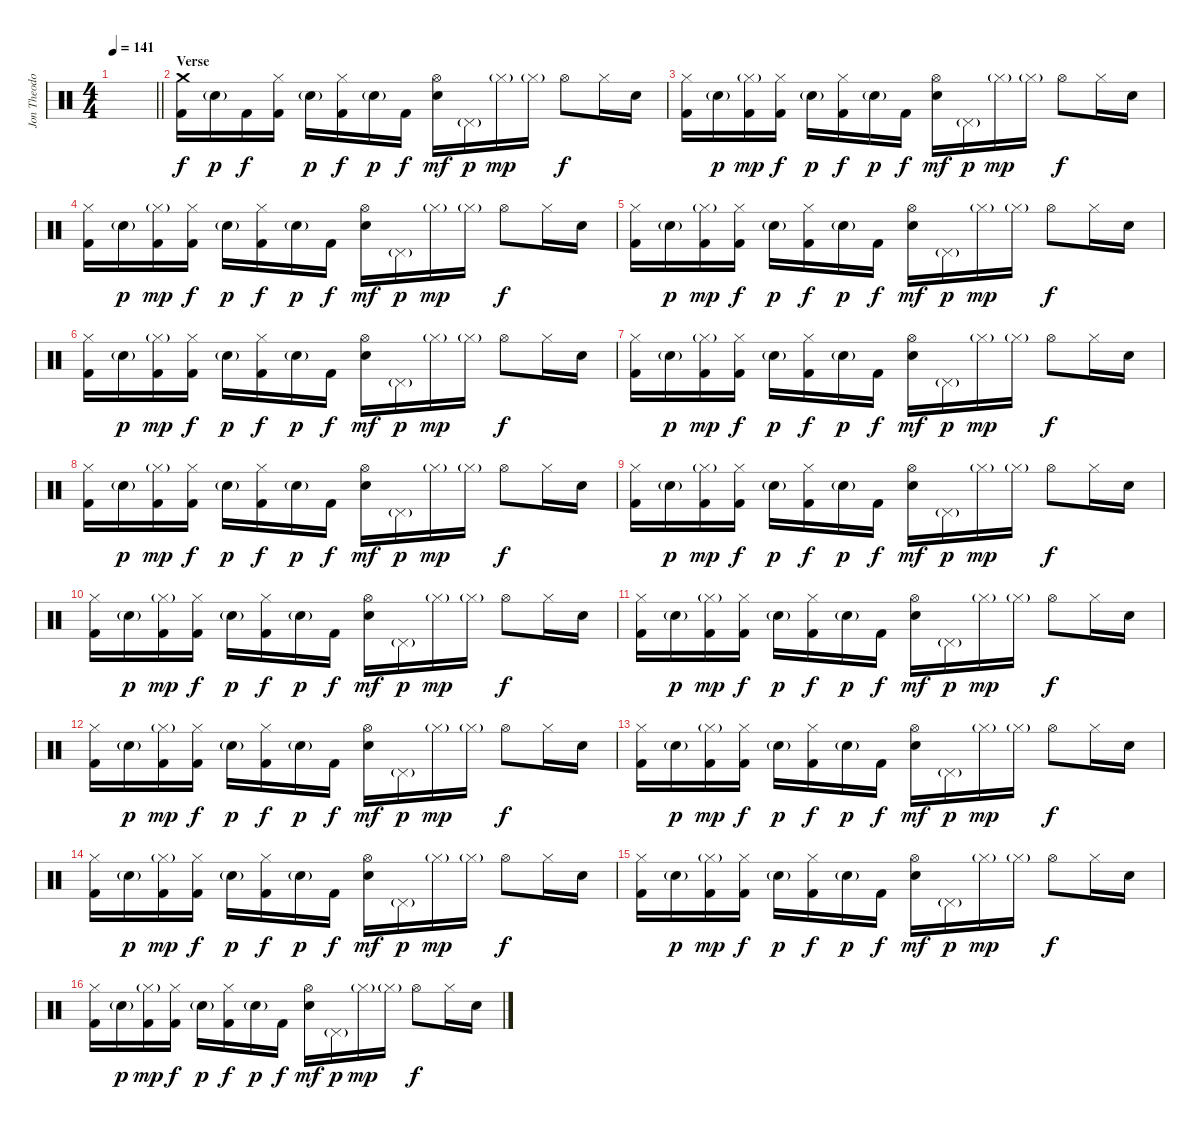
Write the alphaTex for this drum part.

\track ("Jon Theodore - Drums" "Jon Theodo") {instrument percussion}
\staff {score}
\articulation defaults
\ts (4 4)
\tempo 141
\clef neutral
\barLineRight lightlight
\ks c
|
\section ("" "Verse")
("Crash medium (hit)" "Kick (hit) 2").16 "Electric Snare (hit)"{g}.16{dy p} "Kick (hit) 2".16{dy f} ("Hi-Hat (closed)" "Kick (hit) 2").16 "Electric Snare (hit)"{g}.16{dy p} ("Hi-Hat (closed)" "Kick (hit) 2").16{dy f} "Electric Snare (hit)"{g}.16{dy p} "Kick (hit) 2".16{dy f} ("Hi-Hat (open)" "Electric Snare (hit)").16{dy mf} "Pedal Hi-Hat (hit)"{g}.16{dy p} "Hi-Hat (closed)"{g}.16{dy mp} "Hi-Hat (closed)"{g}.16 "Hi-Hat (open)".8{dy f} "Hi-Hat (closed)".16 "Electric Snare (hit)".16 |
("Hi-Hat (closed)" "Kick (hit) 2").16 "Electric Snare (hit)"{g}.16{dy p} ("Hi-Hat (closed)"{g} "Kick (hit) 2").16{dy mp} ("Hi-Hat (closed)" "Kick (hit) 2").16{dy f} "Electric Snare (hit)"{g}.16{dy p} ("Hi-Hat (closed)" "Kick (hit) 2").16{dy f} "Electric Snare (hit)"{g}.16{dy p} "Kick (hit) 2".16{dy f} ("Hi-Hat (open)" "Electric Snare (hit)").16{dy mf} "Pedal Hi-Hat (hit)"{g}.16{dy p} "Hi-Hat (closed)"{g}.16{dy mp} "Hi-Hat (closed)"{g}.16 "Hi-Hat (open)".8{dy f} "Hi-Hat (closed)".16 "Electric Snare (hit)".16 |
("Hi-Hat (closed)" "Kick (hit) 2").16 "Electric Snare (hit)"{g}.16{dy p} ("Hi-Hat (closed)"{g} "Kick (hit) 2").16{dy mp} ("Hi-Hat (closed)" "Kick (hit) 2").16{dy f} "Electric Snare (hit)"{g}.16{dy p} ("Hi-Hat (closed)" "Kick (hit) 2").16{dy f} "Electric Snare (hit)"{g}.16{dy p} "Kick (hit) 2".16{dy f} ("Hi-Hat (open)" "Electric Snare (hit)").16{dy mf} "Pedal Hi-Hat (hit)"{g}.16{dy p} "Hi-Hat (closed)"{g}.16{dy mp} "Hi-Hat (closed)"{g}.16 "Hi-Hat (open)".8{dy f} "Hi-Hat (closed)".16 "Electric Snare (hit)".16 |
("Hi-Hat (closed)" "Kick (hit) 2").16 "Electric Snare (hit)"{g}.16{dy p} ("Hi-Hat (closed)"{g} "Kick (hit) 2").16{dy mp} ("Hi-Hat (closed)" "Kick (hit) 2").16{dy f} "Electric Snare (hit)"{g}.16{dy p} ("Hi-Hat (closed)" "Kick (hit) 2").16{dy f} "Electric Snare (hit)"{g}.16{dy p} "Kick (hit) 2".16{dy f} ("Hi-Hat (open)" "Electric Snare (hit)").16{dy mf} "Pedal Hi-Hat (hit)"{g}.16{dy p} "Hi-Hat (closed)"{g}.16{dy mp} "Hi-Hat (closed)"{g}.16 "Hi-Hat (open)".8{dy f} "Hi-Hat (closed)".16 "Electric Snare (hit)".16 |
("Hi-Hat (closed)" "Kick (hit) 2").16 "Electric Snare (hit)"{g}.16{dy p} ("Hi-Hat (closed)"{g} "Kick (hit) 2").16{dy mp} ("Hi-Hat (closed)" "Kick (hit) 2").16{dy f} "Electric Snare (hit)"{g}.16{dy p} ("Hi-Hat (closed)" "Kick (hit) 2").16{dy f} "Electric Snare (hit)"{g}.16{dy p} "Kick (hit) 2".16{dy f} ("Hi-Hat (open)" "Electric Snare (hit)").16{dy mf} "Pedal Hi-Hat (hit)"{g}.16{dy p} "Hi-Hat (closed)"{g}.16{dy mp} "Hi-Hat (closed)"{g}.16 "Hi-Hat (open)".8{dy f} "Hi-Hat (closed)".16 "Electric Snare (hit)".16 |
("Hi-Hat (closed)" "Kick (hit) 2").16 "Electric Snare (hit)"{g}.16{dy p} ("Hi-Hat (closed)"{g} "Kick (hit) 2").16{dy mp} ("Hi-Hat (closed)" "Kick (hit) 2").16{dy f} "Electric Snare (hit)"{g}.16{dy p} ("Hi-Hat (closed)" "Kick (hit) 2").16{dy f} "Electric Snare (hit)"{g}.16{dy p} "Kick (hit) 2".16{dy f} ("Hi-Hat (open)" "Electric Snare (hit)").16{dy mf} "Pedal Hi-Hat (hit)"{g}.16{dy p} "Hi-Hat (closed)"{g}.16{dy mp} "Hi-Hat (closed)"{g}.16 "Hi-Hat (open)".8{dy f} "Hi-Hat (closed)".16 "Electric Snare (hit)".16 |
("Hi-Hat (closed)" "Kick (hit) 2").16 "Electric Snare (hit)"{g}.16{dy p} ("Hi-Hat (closed)"{g} "Kick (hit) 2").16{dy mp} ("Hi-Hat (closed)" "Kick (hit) 2").16{dy f} "Electric Snare (hit)"{g}.16{dy p} ("Hi-Hat (closed)" "Kick (hit) 2").16{dy f} "Electric Snare (hit)"{g}.16{dy p} "Kick (hit) 2".16{dy f} ("Hi-Hat (open)" "Electric Snare (hit)").16{dy mf} "Pedal Hi-Hat (hit)"{g}.16{dy p} "Hi-Hat (closed)"{g}.16{dy mp} "Hi-Hat (closed)"{g}.16 "Hi-Hat (open)".8{dy f} "Hi-Hat (closed)".16 "Electric Snare (hit)".16 |
("Hi-Hat (closed)" "Kick (hit) 2").16 "Electric Snare (hit)"{g}.16{dy p} ("Hi-Hat (closed)"{g} "Kick (hit) 2").16{dy mp} ("Hi-Hat (closed)" "Kick (hit) 2").16{dy f} "Electric Snare (hit)"{g}.16{dy p} ("Hi-Hat (closed)" "Kick (hit) 2").16{dy f} "Electric Snare (hit)"{g}.16{dy p} "Kick (hit) 2".16{dy f} ("Hi-Hat (open)" "Electric Snare (hit)").16{dy mf} "Pedal Hi-Hat (hit)"{g}.16{dy p} "Hi-Hat (closed)"{g}.16{dy mp} "Hi-Hat (closed)"{g}.16 "Hi-Hat (open)".8{dy f} "Hi-Hat (closed)".16 "Electric Snare (hit)".16 |
("Hi-Hat (closed)" "Kick (hit) 2").16 "Electric Snare (hit)"{g}.16{dy p} ("Hi-Hat (closed)"{g} "Kick (hit) 2").16{dy mp} ("Hi-Hat (closed)" "Kick (hit) 2").16{dy f} "Electric Snare (hit)"{g}.16{dy p} ("Hi-Hat (closed)" "Kick (hit) 2").16{dy f} "Electric Snare (hit)"{g}.16{dy p} "Kick (hit) 2".16{dy f} ("Hi-Hat (open)" "Electric Snare (hit)").16{dy mf} "Pedal Hi-Hat (hit)"{g}.16{dy p} "Hi-Hat (closed)"{g}.16{dy mp} "Hi-Hat (closed)"{g}.16 "Hi-Hat (open)".8{dy f} "Hi-Hat (closed)".16 "Electric Snare (hit)".16 |
("Hi-Hat (closed)" "Kick (hit) 2").16 "Electric Snare (hit)"{g}.16{dy p} ("Hi-Hat (closed)"{g} "Kick (hit) 2").16{dy mp} ("Hi-Hat (closed)" "Kick (hit) 2").16{dy f} "Electric Snare (hit)"{g}.16{dy p} ("Hi-Hat (closed)" "Kick (hit) 2").16{dy f} "Electric Snare (hit)"{g}.16{dy p} "Kick (hit) 2".16{dy f} ("Hi-Hat (open)" "Electric Snare (hit)").16{dy mf} "Pedal Hi-Hat (hit)"{g}.16{dy p} "Hi-Hat (closed)"{g}.16{dy mp} "Hi-Hat (closed)"{g}.16 "Hi-Hat (open)".8{dy f} "Hi-Hat (closed)".16 "Electric Snare (hit)".16 |
("Hi-Hat (closed)" "Kick (hit) 2").16 "Electric Snare (hit)"{g}.16{dy p} ("Hi-Hat (closed)"{g} "Kick (hit) 2").16{dy mp} ("Hi-Hat (closed)" "Kick (hit) 2").16{dy f} "Electric Snare (hit)"{g}.16{dy p} ("Hi-Hat (closed)" "Kick (hit) 2").16{dy f} "Electric Snare (hit)"{g}.16{dy p} "Kick (hit) 2".16{dy f} ("Hi-Hat (open)" "Electric Snare (hit)").16{dy mf} "Pedal Hi-Hat (hit)"{g}.16{dy p} "Hi-Hat (closed)"{g}.16{dy mp} "Hi-Hat (closed)"{g}.16 "Hi-Hat (open)".8{dy f} "Hi-Hat (closed)".16 "Electric Snare (hit)".16 |
("Hi-Hat (closed)" "Kick (hit) 2").16 "Electric Snare (hit)"{g}.16{dy p} ("Hi-Hat (closed)"{g} "Kick (hit) 2").16{dy mp} ("Hi-Hat (closed)" "Kick (hit) 2").16{dy f} "Electric Snare (hit)"{g}.16{dy p} ("Hi-Hat (closed)" "Kick (hit) 2").16{dy f} "Electric Snare (hit)"{g}.16{dy p} "Kick (hit) 2".16{dy f} ("Hi-Hat (open)" "Electric Snare (hit)").16{dy mf} "Pedal Hi-Hat (hit)"{g}.16{dy p} "Hi-Hat (closed)"{g}.16{dy mp} "Hi-Hat (closed)"{g}.16 "Hi-Hat (open)".8{dy f} "Hi-Hat (closed)".16 "Electric Snare (hit)".16 |
("Hi-Hat (closed)" "Kick (hit) 2").16 "Electric Snare (hit)"{g}.16{dy p} ("Hi-Hat (closed)"{g} "Kick (hit) 2").16{dy mp} ("Hi-Hat (closed)" "Kick (hit) 2").16{dy f} "Electric Snare (hit)"{g}.16{dy p} ("Hi-Hat (closed)" "Kick (hit) 2").16{dy f} "Electric Snare (hit)"{g}.16{dy p} "Kick (hit) 2".16{dy f} ("Hi-Hat (open)" "Electric Snare (hit)").16{dy mf} "Pedal Hi-Hat (hit)"{g}.16{dy p} "Hi-Hat (closed)"{g}.16{dy mp} "Hi-Hat (closed)"{g}.16 "Hi-Hat (open)".8{dy f} "Hi-Hat (closed)".16 "Electric Snare (hit)".16 |
("Hi-Hat (closed)" "Kick (hit) 2").16 "Electric Snare (hit)"{g}.16{dy p} ("Hi-Hat (closed)"{g} "Kick (hit) 2").16{dy mp} ("Hi-Hat (closed)" "Kick (hit) 2").16{dy f} "Electric Snare (hit)"{g}.16{dy p} ("Hi-Hat (closed)" "Kick (hit) 2").16{dy f} "Electric Snare (hit)"{g}.16{dy p} "Kick (hit) 2".16{dy f} ("Hi-Hat (open)" "Electric Snare (hit)").16{dy mf} "Pedal Hi-Hat (hit)"{g}.16{dy p} "Hi-Hat (closed)"{g}.16{dy mp} "Hi-Hat (closed)"{g}.16 "Hi-Hat (open)".8{dy f} "Hi-Hat (closed)".16 "Electric Snare (hit)".16 |
("Hi-Hat (closed)" "Kick (hit) 2").16 "Electric Snare (hit)"{g}.16{dy p} ("Hi-Hat (closed)"{g} "Kick (hit) 2").16{dy mp} ("Hi-Hat (closed)" "Kick (hit) 2").16{dy f} "Electric Snare (hit)"{g}.16{dy p} ("Hi-Hat (closed)" "Kick (hit) 2").16{dy f} "Electric Snare (hit)"{g}.16{dy p} "Kick (hit) 2".16{dy f} ("Hi-Hat (open)" "Electric Snare (hit)").16{dy mf} "Pedal Hi-Hat (hit)"{g}.16{dy p} "Hi-Hat (closed)"{g}.16{dy mp} "Hi-Hat (closed)"{g}.16 "Hi-Hat (open)".8{dy f} "Hi-Hat (closed)".16 "Electric Snare (hit)".16
